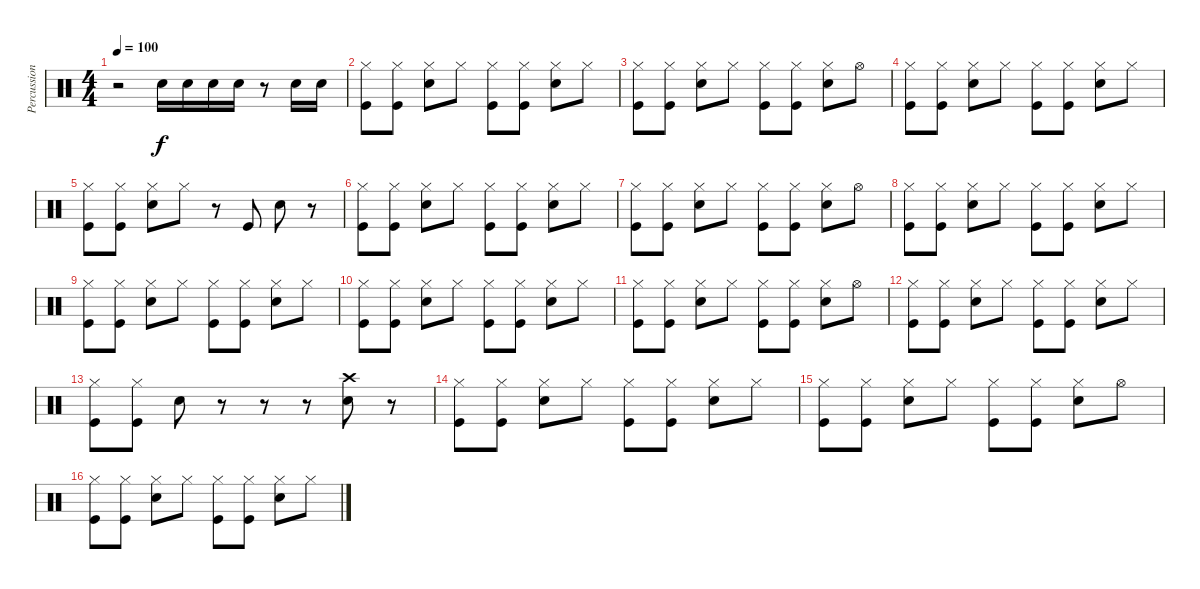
\track ("Percussions" "Percussion") {instrument percussion}
\staff {score}
\articulation defaults
\ts (4 4)
\tempo 100
\clef neutral
\ks c
r.2{dy f} "Electric Snare (hit)".16 "Electric Snare (hit)".16 "Electric Snare (hit)".16 "Electric Snare (hit)".16 r.8 "Electric Snare (hit)".16 "Electric Snare (hit)".16 |
("Hi-Hat (closed)" "Kick (hit)").8 ("Hi-Hat (closed)" "Kick (hit)").8 ("Hi-Hat (closed)" "Electric Snare (hit)").8 "Hi-Hat (closed)".8 ("Hi-Hat (closed)" "Kick (hit)").8 ("Hi-Hat (closed)" "Kick (hit)").8 ("Hi-Hat (closed)" "Electric Snare (hit)").8 "Hi-Hat (closed)".8 |
("Hi-Hat (closed)" "Kick (hit)").8 ("Hi-Hat (closed)" "Kick (hit)").8 ("Hi-Hat (closed)" "Electric Snare (hit)").8 "Hi-Hat (closed)".8 ("Hi-Hat (closed)" "Kick (hit)").8 ("Hi-Hat (closed)" "Kick (hit)").8 ("Hi-Hat (closed)" "Electric Snare (hit)").8 "Hi-Hat (open)".8 |
("Hi-Hat (closed)" "Kick (hit)").8 ("Hi-Hat (closed)" "Kick (hit)").8 ("Hi-Hat (closed)" "Electric Snare (hit)").8 "Hi-Hat (closed)".8 ("Hi-Hat (closed)" "Kick (hit)").8 ("Hi-Hat (closed)" "Kick (hit)").8 ("Hi-Hat (closed)" "Electric Snare (hit)").8 "Hi-Hat (closed)".8 |
("Hi-Hat (closed)" "Kick (hit)").8 ("Hi-Hat (closed)" "Kick (hit)").8 ("Hi-Hat (closed)" "Electric Snare (hit)").8 "Hi-Hat (closed)".8 r.8 "Kick (hit)".8 "Electric Snare (hit)".8 r.8 |
("Hi-Hat (closed)" "Kick (hit)").8 ("Hi-Hat (closed)" "Kick (hit)").8 ("Hi-Hat (closed)" "Electric Snare (hit)").8 "Hi-Hat (closed)".8 ("Hi-Hat (closed)" "Kick (hit)").8 ("Hi-Hat (closed)" "Kick (hit)").8 ("Hi-Hat (closed)" "Electric Snare (hit)").8 "Hi-Hat (closed)".8 |
("Hi-Hat (closed)" "Kick (hit)").8 ("Hi-Hat (closed)" "Kick (hit)").8 ("Hi-Hat (closed)" "Electric Snare (hit)").8 "Hi-Hat (closed)".8 ("Hi-Hat (closed)" "Kick (hit)").8 ("Hi-Hat (closed)" "Kick (hit)").8 ("Hi-Hat (closed)" "Electric Snare (hit)").8 "Hi-Hat (open)".8 |
("Hi-Hat (closed)" "Kick (hit)").8 ("Hi-Hat (closed)" "Kick (hit)").8 ("Hi-Hat (closed)" "Electric Snare (hit)").8 "Hi-Hat (closed)".8 ("Hi-Hat (closed)" "Kick (hit)").8 ("Hi-Hat (closed)" "Kick (hit)").8 ("Hi-Hat (closed)" "Electric Snare (hit)").8 "Hi-Hat (closed)".8 |
("Hi-Hat (closed)" "Kick (hit)").8 ("Hi-Hat (closed)" "Kick (hit)").8 ("Hi-Hat (closed)" "Electric Snare (hit)").8 "Hi-Hat (closed)".8 ("Hi-Hat (closed)" "Kick (hit)").8 ("Hi-Hat (closed)" "Kick (hit)").8 ("Hi-Hat (closed)" "Electric Snare (hit)").8 "Hi-Hat (closed)".8 |
("Hi-Hat (closed)" "Kick (hit)").8 ("Hi-Hat (closed)" "Kick (hit)").8 ("Hi-Hat (closed)" "Electric Snare (hit)").8 "Hi-Hat (closed)".8 ("Hi-Hat (closed)" "Kick (hit)").8 ("Hi-Hat (closed)" "Kick (hit)").8 ("Hi-Hat (closed)" "Electric Snare (hit)").8 "Hi-Hat (closed)".8 |
("Hi-Hat (closed)" "Kick (hit)").8 ("Hi-Hat (closed)" "Kick (hit)").8 ("Hi-Hat (closed)" "Electric Snare (hit)").8 "Hi-Hat (closed)".8 ("Hi-Hat (closed)" "Kick (hit)").8 ("Hi-Hat (closed)" "Kick (hit)").8 ("Hi-Hat (closed)" "Electric Snare (hit)").8 "Hi-Hat (open)".8 |
("Hi-Hat (closed)" "Kick (hit)").8 ("Hi-Hat (closed)" "Kick (hit)").8 ("Hi-Hat (closed)" "Electric Snare (hit)").8 "Hi-Hat (closed)".8 ("Hi-Hat (closed)" "Kick (hit)").8 ("Hi-Hat (closed)" "Kick (hit)").8 ("Hi-Hat (closed)" "Electric Snare (hit)").8 "Hi-Hat (closed)".8 |
("Hi-Hat (closed)" "Kick (hit)").8 ("Hi-Hat (closed)" "Kick (hit)").8 "Electric Snare (hit)".8 r.8 r.8 r.8 ("Crash high (hit)" "Electric Snare (hit)").8 r.8 |
("Hi-Hat (closed)" "Kick (hit)").8 ("Hi-Hat (closed)" "Kick (hit)").8 ("Hi-Hat (closed)" "Electric Snare (hit)").8 "Hi-Hat (closed)".8 ("Hi-Hat (closed)" "Kick (hit)").8 ("Hi-Hat (closed)" "Kick (hit)").8 ("Hi-Hat (closed)" "Electric Snare (hit)").8 "Hi-Hat (closed)".8 |
("Hi-Hat (closed)" "Kick (hit)").8 ("Hi-Hat (closed)" "Kick (hit)").8 ("Hi-Hat (closed)" "Electric Snare (hit)").8 "Hi-Hat (closed)".8 ("Hi-Hat (closed)" "Kick (hit)").8 ("Hi-Hat (closed)" "Kick (hit)").8 ("Hi-Hat (closed)" "Electric Snare (hit)").8 "Hi-Hat (open)".8 |
("Hi-Hat (closed)" "Kick (hit)").8 ("Hi-Hat (closed)" "Kick (hit)").8 ("Hi-Hat (closed)" "Electric Snare (hit)").8 "Hi-Hat (closed)".8 ("Hi-Hat (closed)" "Kick (hit)").8 ("Hi-Hat (closed)" "Kick (hit)").8 ("Hi-Hat (closed)" "Electric Snare (hit)").8 "Hi-Hat (closed)".8
